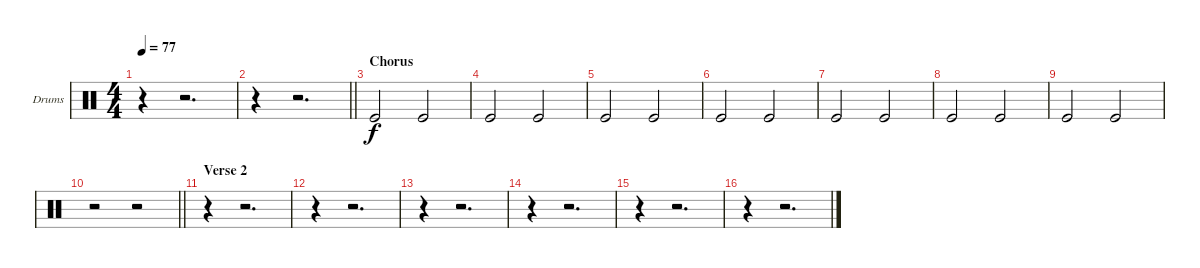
\bracketExtendMode groupsimilarinstruments
\firstSystemTrackNameOrientation horizontal
\otherSystemsTrackNameOrientation horizontal
\track ("Drumkit" "Drums") {instrument percussion}
\staff {score}
\articulation defaults
\ts (4 4)
\tempo 77
\clef neutral
\ks c
r.4{dy f} r.2{d} |
\barLineRight lightlight
r.4 r.2{d} |
\section ("" "Chorus")
"Kick (hit)".2 "Kick (hit)".2 |
"Kick (hit)".2 "Kick (hit)".2 |
"Kick (hit)".2 "Kick (hit)".2 |
"Kick (hit)".2 "Kick (hit)".2 |
"Kick (hit)".2 "Kick (hit)".2 |
"Kick (hit)".2 "Kick (hit)".2 |
"Kick (hit)".2 "Kick (hit)".2 |
\barLineRight lightlight
r.2 r.2 |
\section ("" "Verse 2")
r.4 r.2{d} |
r.4 r.2{d} |
r.4 r.2{d} |
r.4 r.2{d} |
r.4 r.2{d} |
r.4 r.2{d}
